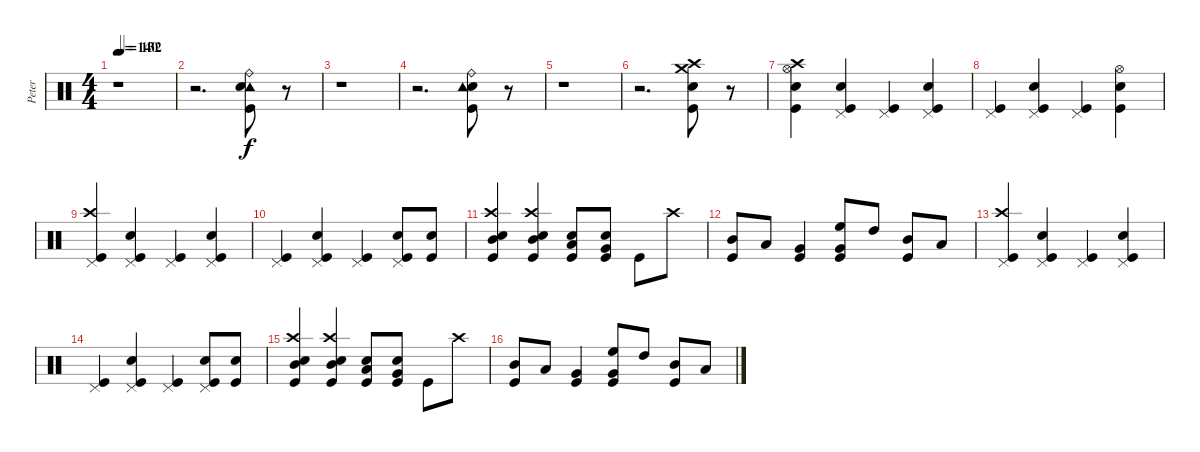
\track ("Peter" "Peter") {instrument percussion}
\staff {score}
\articulation defaults
\ts (4 4)
\tempo 140
\tempo (132 0.0625)
\tempo 140
\clef neutral
\ks c
r.1{dy f} |
r.2{d} ("Tambourine (hit)" "Electric Snare (hit)" "Kick (hit)" "Ride (bell)").8 r.8 |
r.1 |
r.2{d} ("Ride (bell)" "Electric Snare (hit)" "Kick (hit)" "Tambourine (hit)").8 r.8 |
r.1 |
r.2{d} ("Crash medium (hit)" "Kick (hit)" "Snare (hit) 2" "Crash high (hit)").8 r.8 |
("Snare (hit) 2" "Hi-Hat (open)" "Kick (hit)" "Crash high (hit)").4 ("Pedal Hi-Hat (hit)" "Snare (hit) 2" "Kick (hit)").4 ("Pedal Hi-Hat (hit)" "Kick (hit)").4 ("Kick (hit)" "Snare (hit) 2" "Pedal Hi-Hat (hit)").4 |
("Kick (hit)" "Pedal Hi-Hat (hit)").4 ("Pedal Hi-Hat (hit)" "Snare (hit) 2" "Kick (hit)").4 ("Pedal Hi-Hat (hit)" "Kick (hit)").4 ("Snare (hit) 2" "Hi-Hat (open)" "Kick (hit)").4 |
("Crash high (hit)" "Kick (hit)" "Pedal Hi-Hat (hit)").4 ("Kick (hit)" "Snare (hit) 2" "Pedal Hi-Hat (hit)").4 ("Kick (hit)" "Pedal Hi-Hat (hit)").4 ("Pedal Hi-Hat (hit)" "Kick (hit)" "Snare (hit) 2").4 |
("Pedal Hi-Hat (hit)" "Kick (hit)").4 ("Pedal Hi-Hat (hit)" "Snare (hit) 2" "Kick (hit)").4 ("Pedal Hi-Hat (hit)" "Kick (hit)").4 ("Pedal Hi-Hat (hit)" "Kick (hit)" "Snare (hit) 2").8 ("Kick (hit)" "Snare (hit) 2").8 |
("Snare (hit) 2" "Kick (hit)" "Mid Tom (hit)" "Crash high (hit)").4 ("Mid Tom (hit)" "Snare (hit) 2" "Kick (hit)" "Crash high (hit)").4 ("Snare (hit) 2" "Low Tom (hit)" "Kick (hit)").8 ("Kick (hit)" "Snare (hit) 2" "Very Low Tom (hit)").8 "Kick (hit)".8 "Crash high (hit)".8 |
("Mid Tom (hit)" "Kick (hit)").8 "Low Tom (hit)".8 ("Very Low Tom (hit)" "Kick (hit)").4 ("Very Low Tom (hit)" "Kick (hit)" "High Floor Tom (hit)").8 "High Tom (hit)".8 ("Kick (hit)" "Mid Tom (hit)").8 "Low Tom (hit)".8 |
("Crash high (hit)" "Kick (hit)" "Pedal Hi-Hat (hit)").4 ("Kick (hit)" "Snare (hit) 2" "Pedal Hi-Hat (hit)").4 ("Kick (hit)" "Pedal Hi-Hat (hit)").4 ("Snare (hit) 2" "Pedal Hi-Hat (hit)" "Kick (hit)").4 |
("Pedal Hi-Hat (hit)" "Kick (hit)").4 ("Snare (hit) 2" "Kick (hit)" "Pedal Hi-Hat (hit)").4 ("Pedal Hi-Hat (hit)" "Kick (hit)").4 ("Snare (hit) 2" "Kick (hit)" "Pedal Hi-Hat (hit)").8 ("Kick (hit)" "Snare (hit) 2").8 |
("Mid Tom (hit)" "Snare (hit) 2" "Kick (hit)" "Crash high (hit)").4 ("Crash high (hit)" "Snare (hit) 2" "Kick (hit)" "Mid Tom (hit)").4 ("Low Tom (hit)" "Kick (hit)" "Snare (hit) 2").8 ("Kick (hit)" "Snare (hit) 2" "Very Low Tom (hit)").8 "Kick (hit)".8 "Crash high (hit)".8 |
("Kick (hit)" "Mid Tom (hit)").8 "Low Tom (hit)".8 ("Very Low Tom (hit)" "Kick (hit)").4 ("Very Low Tom (hit)" "Kick (hit)" "High Floor Tom (hit)").8 "High Tom (hit)".8 ("Mid Tom (hit)" "Kick (hit)").8 "Low Tom (hit)".8
